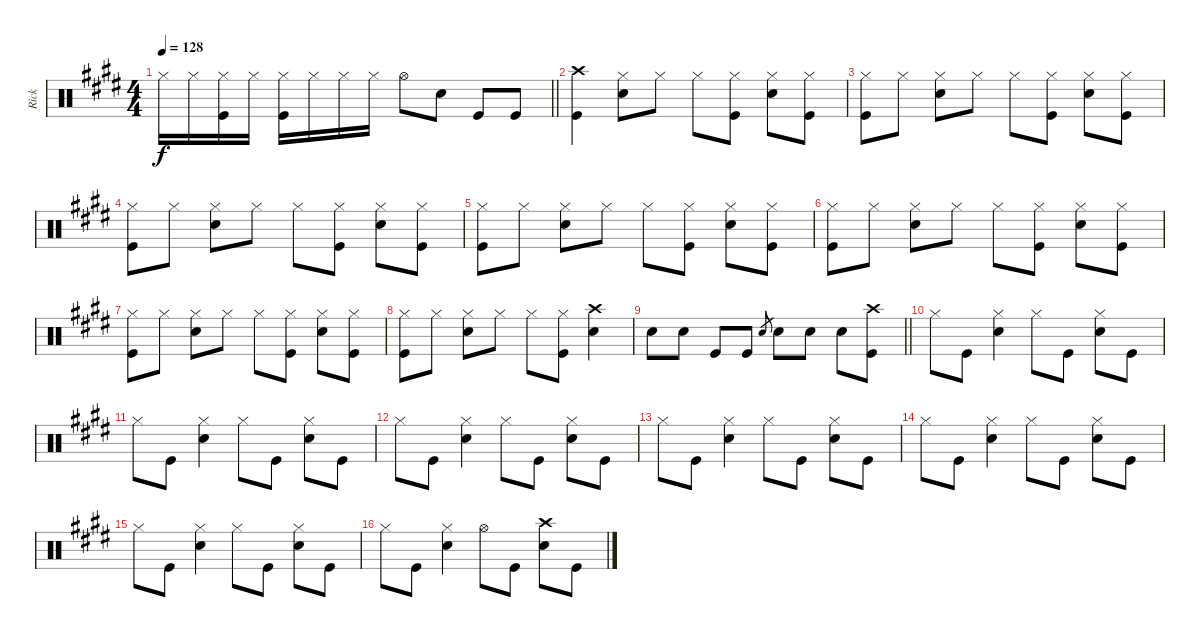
\track ("Rick" "Rick") {instrument percussion}
\staff {score}
\articulation defaults
\ts (4 4)
\tempo 128
\clef neutral
\barLineRight lightlight
\ks c#minor "Hi-Hat (closed)".16{dy f} "Hi-Hat (closed)".16
("Hi-Hat (closed)" "Kick (hit)").16 "Hi-Hat (closed)".16 ("Hi-Hat (closed)" "Kick (hit)").16 "Hi-Hat (closed)".16 "Hi-Hat (closed)".16 "Hi-Hat (closed)".16 "Hi-Hat (open)".8 "Snare (hit) 2".8 "Kick (hit)".8 "Kick (hit)".8 |
("Crash high (hit)" "Kick (hit)").4 ("Hi-Hat (closed)" "Snare (hit) 2").8 "Hi-Hat (closed)".8 "Hi-Hat (closed)".8 ("Hi-Hat (closed)" "Kick (hit)").8 ("Hi-Hat (closed)" "Snare (hit) 2").8 ("Hi-Hat (closed)" "Kick (hit)").8 |
("Hi-Hat (closed)" "Kick (hit)").8 "Hi-Hat (closed)".8 ("Hi-Hat (closed)" "Snare (hit) 2").8 "Hi-Hat (closed)".8 "Hi-Hat (closed)".8 ("Hi-Hat (closed)" "Kick (hit)").8 ("Hi-Hat (closed)" "Snare (hit) 2").8 ("Hi-Hat (closed)" "Kick (hit)").8 |
("Hi-Hat (closed)" "Kick (hit)").8 "Hi-Hat (closed)".8 ("Hi-Hat (closed)" "Snare (hit) 2").8 "Hi-Hat (closed)".8 "Hi-Hat (closed)".8 ("Hi-Hat (closed)" "Kick (hit)").8 ("Hi-Hat (closed)" "Snare (hit) 2").8 ("Hi-Hat (closed)" "Kick (hit)").8 |
("Hi-Hat (closed)" "Kick (hit)").8 "Hi-Hat (closed)".8 ("Hi-Hat (closed)" "Snare (hit) 2").8 "Hi-Hat (closed)".8 "Hi-Hat (closed)".8 ("Hi-Hat (closed)" "Kick (hit)").8 ("Hi-Hat (closed)" "Snare (hit) 2").8 ("Hi-Hat (closed)" "Kick (hit)").8 |
("Hi-Hat (closed)" "Kick (hit)").8 "Hi-Hat (closed)".8 ("Hi-Hat (closed)" "Snare (hit) 2").8 "Hi-Hat (closed)".8 "Hi-Hat (closed)".8 ("Hi-Hat (closed)" "Kick (hit)").8 ("Hi-Hat (closed)" "Snare (hit) 2").8 ("Hi-Hat (closed)" "Kick (hit)").8 |
("Hi-Hat (closed)" "Kick (hit)").8 "Hi-Hat (closed)".8 ("Hi-Hat (closed)" "Snare (hit) 2").8 "Hi-Hat (closed)".8 "Hi-Hat (closed)".8 ("Hi-Hat (closed)" "Kick (hit)").8 ("Hi-Hat (closed)" "Snare (hit) 2").8 ("Hi-Hat (closed)" "Kick (hit)").8 |
("Hi-Hat (closed)" "Kick (hit)").8 "Hi-Hat (closed)".8 ("Hi-Hat (closed)" "Snare (hit) 2").8 "Hi-Hat (closed)".8 "Hi-Hat (closed)".8 ("Hi-Hat (closed)" "Kick (hit)").8 ("Crash high (hit)" "Snare (hit) 2").4 |
\barLineRight lightlight "Snare (hit) 2".8 "Snare (hit) 2".8 "Kick (hit)".8 "Kick (hit)".8 "Snare (hit) 2".8{gr} "Snare (hit) 2".8 "Snare (hit) 2".8 "Snare (hit) 2".8
("Crash high (hit)" "Kick (hit)").8 |
"Hi-Hat (closed)".8 "Kick (hit)".8 ("Hi-Hat (closed)" "Snare (hit) 2").4 "Hi-Hat (closed)".8 "Kick (hit)".8 ("Hi-Hat (closed)" "Snare (hit) 2").8 "Kick (hit)".8 |
"Hi-Hat (closed)".8 "Kick (hit)".8 ("Hi-Hat (closed)" "Snare (hit) 2").4 "Hi-Hat (closed)".8 "Kick (hit)".8 ("Hi-Hat (closed)" "Snare (hit) 2").8 "Kick (hit)".8 |
"Hi-Hat (closed)".8 "Kick (hit)".8 ("Hi-Hat (closed)" "Snare (hit) 2").4 "Hi-Hat (closed)".8 "Kick (hit)".8 ("Hi-Hat (closed)" "Snare (hit) 2").8 "Kick (hit)".8 |
"Hi-Hat (closed)".8 "Kick (hit)".8 ("Hi-Hat (closed)" "Snare (hit) 2").4 "Hi-Hat (closed)".8 "Kick (hit)".8 ("Hi-Hat (closed)" "Snare (hit) 2").8 "Kick (hit)".8 |
"Hi-Hat (closed)".8 "Kick (hit)".8 ("Hi-Hat (closed)" "Snare (hit) 2").4 "Hi-Hat (closed)".8 "Kick (hit)".8 ("Hi-Hat (closed)" "Snare (hit) 2").8 "Kick (hit)".8 |
"Hi-Hat (closed)".8 "Kick (hit)".8 ("Hi-Hat (closed)" "Snare (hit) 2").4 "Hi-Hat (closed)".8 "Kick (hit)".8 ("Hi-Hat (closed)" "Snare (hit) 2").8 "Kick (hit)".8 |
"Hi-Hat (closed)".8 "Kick (hit)".8 ("Hi-Hat (closed)" "Snare (hit) 2").4 "Hi-Hat (open)".8 "Kick (hit)".8 ("Crash high (hit)" "Snare (hit) 2").8 "Kick (hit)".8
